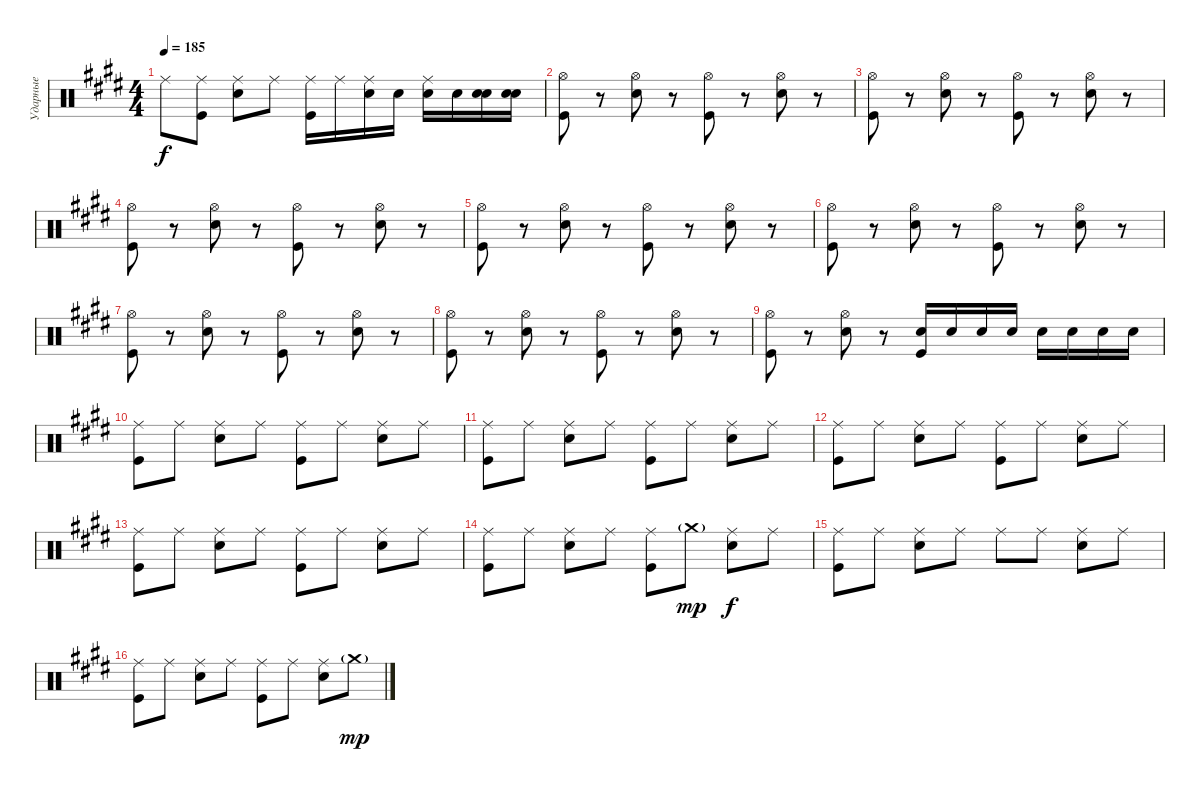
\track ("Ударные" "Ударные") {instrument percussion}
\staff {score}
\articulation defaults
\ts (4 4)
\tempo 185
\clef neutral
\ks c#minor "Ride (middle)".8{dy f}
("Ride (middle)" "Kick (hit)").8 ("Ride (middle)" "Electric Snare (hit)").8 "Ride (middle)".8 ("Kick (hit)" "Ride (middle)").16 "Ride (middle)".16 ("Electric Snare (hit)" "Ride (middle)").16 "Electric Snare (hit)".16 ("Electric Snare (hit)" "Ride (middle)").16 "Electric Snare (hit)".16 ("Electric Snare (hit)" "Electric Snare (hit)").16 ("Electric Snare (hit)" "Electric Snare (hit)").16 |
("Hi-Hat (open)" "Kick (hit)").8 r.8 ("Hi-Hat (open)" "Electric Snare (hit)").8 r.8 ("Hi-Hat (open)" "Kick (hit)").8 r.8 ("Hi-Hat (open)" "Electric Snare (hit)").8 r.8 |
("Hi-Hat (open)" "Kick (hit)").8 r.8 ("Hi-Hat (open)" "Electric Snare (hit)").8 r.8 ("Hi-Hat (open)" "Kick (hit)").8 r.8 ("Hi-Hat (open)" "Electric Snare (hit)").8 r.8 |
("Hi-Hat (open)" "Kick (hit)").8 r.8 ("Hi-Hat (open)" "Electric Snare (hit)").8 r.8 ("Hi-Hat (open)" "Kick (hit)").8 r.8 ("Hi-Hat (open)" "Electric Snare (hit)").8 r.8 |
("Hi-Hat (open)" "Kick (hit)").8 r.8 ("Hi-Hat (open)" "Electric Snare (hit)").8 r.8 ("Hi-Hat (open)" "Kick (hit)").8 r.8 ("Hi-Hat (open)" "Electric Snare (hit)").8 r.8 |
("Hi-Hat (open)" "Kick (hit)").8 r.8 ("Hi-Hat (open)" "Electric Snare (hit)").8 r.8 ("Hi-Hat (open)" "Kick (hit)").8 r.8 ("Hi-Hat (open)" "Electric Snare (hit)").8 r.8 |
("Kick (hit)" "Hi-Hat (open)").8 r.8 ("Electric Snare (hit)" "Hi-Hat (open)").8 r.8 ("Kick (hit)" "Hi-Hat (open)").8 r.8 ("Hi-Hat (open)" "Electric Snare (hit)").8 r.8 |
("Kick (hit)" "Hi-Hat (open)").8 r.8 ("Hi-Hat (open)" "Electric Snare (hit)").8 r.8 ("Kick (hit)" "Hi-Hat (open)").8 r.8 ("Electric Snare (hit)" "Hi-Hat (open)").8 r.8 |
("Hi-Hat (open)" "Kick (hit)").8 r.8 ("Hi-Hat (open)" "Electric Snare (hit)").8 r.8 ("Electric Snare (hit)" "Kick (hit)").16 "Electric Snare (hit)".16 "Electric Snare (hit)".16 "Electric Snare (hit)".16 "Electric Snare (hit)".16 "Electric Snare (hit)".16 "Electric Snare (hit)".16 "Electric Snare (hit)".16 |
("Ride (middle)" "Kick (hit)").8 "Ride (middle)".8 ("Electric Snare (hit)" "Ride (middle)").8 "Ride (middle)".8 ("Ride (middle)" "Kick (hit)").8 "Ride (middle)".8 ("Ride (middle)" "Electric Snare (hit)").8 "Ride (middle)".8 |
("Ride (middle)" "Kick (hit)").8 "Ride (middle)".8 ("Electric Snare (hit)" "Ride (middle)").8 "Ride (middle)".8 ("Ride (middle)" "Kick (hit)").8 "Ride (middle)".8 ("Ride (middle)" "Electric Snare (hit)").8 "Ride (middle)".8 |
("Ride (middle)" "Kick (hit)").8 "Ride (middle)".8 ("Electric Snare (hit)" "Ride (middle)").8 "Ride (middle)".8 ("Ride (middle)" "Kick (hit)").8 "Ride (middle)".8 ("Ride (middle)" "Electric Snare (hit)").8 "Ride (middle)".8 |
("Ride (middle)" "Kick (hit)").8 "Ride (middle)".8 ("Electric Snare (hit)" "Ride (middle)").8 "Ride (middle)".8 ("Ride (middle)" "Kick (hit)").8 "Ride (middle)".8 ("Ride (middle)" "Electric Snare (hit)").8 "Ride (middle)".8 |
("Ride (middle)" "Kick (hit)").8 "Ride (middle)".8 ("Ride (middle)" "Electric Snare (hit)").8 "Ride (middle)".8 ("Ride (middle)" "Kick (hit)").8 "Crash medium (hit)"{g}.8{dy mp} ("Ride (middle)" "Electric Snare (hit)").8{dy f} "Ride (middle)".8 |
("Ride (middle)" "Kick (hit)").8 "Ride (middle)".8 ("Ride (middle)" "Electric Snare (hit)").8 "Ride (middle)".8 "Ride (middle)".8 "Ride (middle)".8 ("Ride (middle)" "Electric Snare (hit)").8 "Ride (middle)".8 |
("Ride (middle)" "Kick (hit)").8 "Ride (middle)".8 ("Ride (middle)" "Electric Snare (hit)").8 "Ride (middle)".8 ("Ride (middle)" "Kick (hit)").8 "Ride (middle)".8 ("Ride (middle)" "Electric Snare (hit)").8 "Crash medium (hit)"{g}.8{dy mp}
